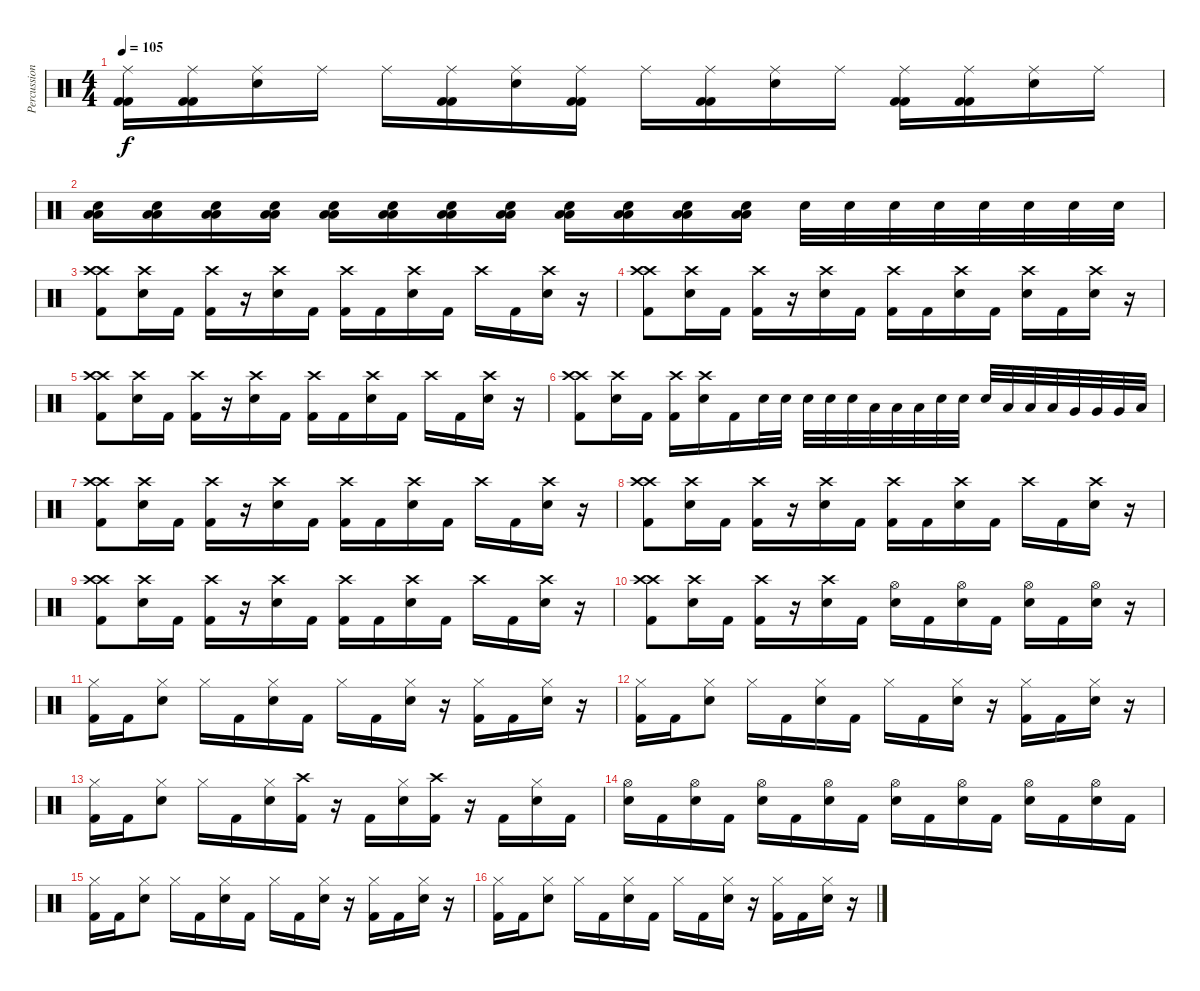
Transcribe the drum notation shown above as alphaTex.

\track ("Percussion" "Percussion") {instrument percussion}
\staff {score}
\articulation defaults
\ts (4 4)
\tempo 105
\clef neutral
\ks c
("Ride (middle)" "Kick (hit) 2" "Kick (hit) 2").16{dy f} ("Ride (middle)" "Kick (hit) 2" "Kick (hit) 2").16 ("Ride (middle)" "Snare (hit) 2").16 "Ride (middle)".16 "Ride (middle)".16 ("Ride (middle)" "Kick (hit) 2" "Kick (hit) 2").16 ("Ride (middle)" "Snare (hit) 2").16 ("Ride (middle)" "Kick (hit) 2" "Kick (hit) 2").16 "Ride (middle)".16 ("Ride (middle)" "Kick (hit) 2" "Kick (hit) 2").16 ("Ride (middle)" "Snare (hit) 2").16 "Ride (middle)".16 ("Ride (middle)" "Kick (hit) 2" "Kick (hit) 2").16 ("Ride (middle)" "Kick (hit) 2" "Kick (hit) 2").16 ("Ride (middle)" "Snare (hit) 2").16 "Ride (middle)".16 |
("Snare (hit) 2" "Low Floor Tom (hit)" "Low Floor Tom (hit)").16 ("Snare (hit) 2" "Low Floor Tom (hit)" "Low Floor Tom (hit)").16 ("Snare (hit) 2" "Low Floor Tom (hit)" "Low Floor Tom (hit)").16 ("Snare (hit) 2" "Low Floor Tom (hit)" "Low Floor Tom (hit)").16 ("Snare (hit) 2" "Low Floor Tom (hit)" "Low Floor Tom (hit)").16 ("Snare (hit) 2" "Low Floor Tom (hit)" "Low Floor Tom (hit)").16 ("Snare (hit) 2" "Low Floor Tom (hit)" "Low Floor Tom (hit)").16 ("Snare (hit) 2" "Low Floor Tom (hit)" "Low Floor Tom (hit)").16 ("Snare (hit) 2" "Low Floor Tom (hit)" "Low Floor Tom (hit)").16 ("Snare (hit) 2" "Low Floor Tom (hit)" "Low Floor Tom (hit)").16 ("Snare (hit) 2" "Low Floor Tom (hit)" "Low Floor Tom (hit)").16 ("Snare (hit) 2" "Low Floor Tom (hit)" "Low Floor Tom (hit)").16 "Snare (hit) 2".32 "Snare (hit) 2".32 "Snare (hit) 2".32 "Snare (hit) 2".32 "Snare (hit) 2".32 "Snare (hit) 2".32 "Snare (hit) 2".32 "Snare (hit) 2".32 |
("Crash high (hit)" "Crash high (hit)" "Kick (hit) 2").8 ("Crash high (hit)" "Snare (hit) 2").16 "Kick (hit) 2".16 ("Crash high (hit)" "Kick (hit) 2").16 r.16 ("Crash high (hit)" "Snare (hit) 2").16 "Kick (hit) 2".16 ("Crash high (hit)" "Kick (hit) 2").16 "Kick (hit) 2".16 ("Crash high (hit)" "Snare (hit) 2").16 "Kick (hit) 2".16 "Crash high (hit)".16 "Kick (hit) 2".16 ("Crash high (hit)" "Snare (hit) 2").16 r.16 |
("Crash high (hit)" "Crash high (hit)" "Kick (hit) 2").8 ("Crash high (hit)" "Snare (hit) 2").16 "Kick (hit) 2".16 ("Crash high (hit)" "Kick (hit) 2").16 r.16 ("Crash high (hit)" "Snare (hit) 2").16 "Kick (hit) 2".16 ("Crash high (hit)" "Kick (hit) 2").16 "Kick (hit) 2".16 ("Crash high (hit)" "Snare (hit) 2").16 "Kick (hit) 2".16 ("Crash high (hit)" "Snare (hit) 2").16 "Kick (hit) 2".16 ("Crash high (hit)" "Snare (hit) 2").16 r.16 |
("Crash high (hit)" "Crash high (hit)" "Kick (hit) 2").8 ("Crash high (hit)" "Snare (hit) 2").16 "Kick (hit) 2".16 ("Crash high (hit)" "Kick (hit) 2").16 r.16 ("Crash high (hit)" "Snare (hit) 2").16 "Kick (hit) 2".16 ("Crash high (hit)" "Kick (hit) 2").16 "Kick (hit) 2".16 ("Crash high (hit)" "Snare (hit) 2").16 "Kick (hit) 2".16 "Crash high (hit)".16 "Kick (hit) 2".16 ("Crash high (hit)" "Snare (hit) 2").16 r.16 |
("Crash high (hit)" "Crash high (hit)" "Kick (hit) 2").8 ("Crash high (hit)" "Snare (hit) 2").16 "Kick (hit) 2".16 ("Crash high (hit)" "Kick (hit) 2").16 ("Crash high (hit)" "Snare (hit) 2").16 "Kick (hit) 2".16 "Snare (hit) 2".32 "Snare (hit) 2".32 "Snare (hit) 2".32 "Snare (hit) 2".32 "Snare (hit) 2".32 "Low Tom (hit)".32 "Low Tom (hit)".32 "Low Tom (hit)".32 "Snare (hit) 2".32 "Snare (hit) 2".32 "Snare (hit) 2".32 "Low Tom (hit)".32 "Low Tom (hit)".32 "Low Tom (hit)".32 "Very Low Tom (hit)".32 "Very Low Tom (hit)".32 "Very Low Tom (hit)".32 "Low Floor Tom (hit)".32 |
("Crash high (hit)" "Crash high (hit)" "Kick (hit) 2").8 ("Crash high (hit)" "Snare (hit) 2").16 "Kick (hit) 2".16 ("Crash high (hit)" "Kick (hit) 2").16 r.16 ("Crash high (hit)" "Snare (hit) 2").16 "Kick (hit) 2".16 ("Crash high (hit)" "Kick (hit) 2").16 "Kick (hit) 2".16 ("Crash high (hit)" "Snare (hit) 2").16 "Kick (hit) 2".16 "Crash high (hit)".16 "Kick (hit) 2".16 ("Crash high (hit)" "Snare (hit) 2").16 r.16 |
("Crash high (hit)" "Crash high (hit)" "Kick (hit) 2").8 ("Crash high (hit)" "Snare (hit) 2").16 "Kick (hit) 2".16 ("Crash high (hit)" "Kick (hit) 2").16 r.16 ("Crash high (hit)" "Snare (hit) 2").16 "Kick (hit) 2".16 ("Crash high (hit)" "Kick (hit) 2").16 "Kick (hit) 2".16 ("Crash high (hit)" "Snare (hit) 2").16 "Kick (hit) 2".16 "Crash high (hit)".16 "Kick (hit) 2".16 ("Crash high (hit)" "Snare (hit) 2").16 r.16 |
("Crash high (hit)" "Crash high (hit)" "Kick (hit) 2").8 ("Crash high (hit)" "Snare (hit) 2").16 "Kick (hit) 2".16 ("Crash high (hit)" "Kick (hit) 2").16 r.16 ("Crash high (hit)" "Snare (hit) 2").16 "Kick (hit) 2".16 ("Crash high (hit)" "Kick (hit) 2").16 "Kick (hit) 2".16 ("Crash high (hit)" "Snare (hit) 2").16 "Kick (hit) 2".16 "Crash high (hit)".16 "Kick (hit) 2".16 ("Crash high (hit)" "Snare (hit) 2").16 r.16 |
("Crash high (hit)" "Crash high (hit)" "Kick (hit) 2").8 ("Crash high (hit)" "Snare (hit) 2").16 "Kick (hit) 2".16 ("Crash high (hit)" "Kick (hit) 2").16 r.16 ("Crash high (hit)" "Snare (hit) 2").16 "Kick (hit) 2".16 ("Hi-Hat (open)" "Snare (hit) 2").16 "Kick (hit) 2".16 ("Hi-Hat (open)" "Snare (hit) 2").16 "Kick (hit) 2".16 ("Hi-Hat (open)" "Snare (hit) 2").16 "Kick (hit) 2".16 ("Hi-Hat (open)" "Snare (hit) 2").16 r.16 |
("Hi-Hat (closed)" "Kick (hit) 2").16 "Kick (hit) 2".16 ("Hi-Hat (closed)" "Snare (hit) 2").8 "Hi-Hat (closed)".16 "Kick (hit) 2".16 ("Hi-Hat (closed)" "Snare (hit) 2").16 "Kick (hit) 2".16 "Hi-Hat (closed)".16 "Kick (hit) 2".16 ("Hi-Hat (closed)" "Snare (hit) 2").16 r.16 ("Hi-Hat (closed)" "Kick (hit) 2").16 "Kick (hit) 2".16 ("Hi-Hat (closed)" "Snare (hit) 2").16 r.16 |
("Hi-Hat (closed)" "Kick (hit) 2").16 "Kick (hit) 2".16 ("Hi-Hat (closed)" "Snare (hit) 2").8 "Hi-Hat (closed)".16 "Kick (hit) 2".16 ("Hi-Hat (closed)" "Snare (hit) 2").16 "Kick (hit) 2".16 "Hi-Hat (closed)".16 "Kick (hit) 2".16 ("Hi-Hat (closed)" "Snare (hit) 2").16 r.16 ("Hi-Hat (closed)" "Kick (hit) 2").16 "Kick (hit) 2".16 ("Hi-Hat (closed)" "Snare (hit) 2").16 r.16 |
("Hi-Hat (closed)" "Kick (hit) 2").16 "Kick (hit) 2".16 ("Hi-Hat (closed)" "Snare (hit) 2").8 "Hi-Hat (closed)".16 "Kick (hit) 2".16 ("Hi-Hat (closed)" "Snare (hit) 2").16 ("Crash high (hit)" "Kick (hit) 2").16 r.16 "Kick (hit) 2".16 ("Hi-Hat (closed)" "Snare (hit) 2").16 ("Crash high (hit)" "Kick (hit) 2").16 r.16 "Kick (hit) 2".16 ("Hi-Hat (closed)" "Snare (hit) 2").16 "Kick (hit) 2".16 |
("Hi-Hat (open)" "Snare (hit) 2").16 "Kick (hit) 2".16 ("Hi-Hat (open)" "Snare (hit) 2").16 "Kick (hit) 2".16 ("Hi-Hat (open)" "Snare (hit) 2").16 "Kick (hit) 2".16 ("Hi-Hat (open)" "Snare (hit) 2").16 "Kick (hit) 2".16 ("Hi-Hat (open)" "Snare (hit) 2").16 "Kick (hit) 2".16 ("Hi-Hat (open)" "Snare (hit) 2").16 "Kick (hit) 2".16 ("Hi-Hat (open)" "Snare (hit) 2").16 "Kick (hit) 2".16 ("Hi-Hat (open)" "Snare (hit) 2").16 "Kick (hit) 2".16 |
("Hi-Hat (closed)" "Kick (hit) 2").16 "Kick (hit) 2".16 ("Hi-Hat (closed)" "Snare (hit) 2").8 "Hi-Hat (closed)".16 "Kick (hit) 2".16 ("Hi-Hat (closed)" "Snare (hit) 2").16 "Kick (hit) 2".16 "Hi-Hat (closed)".16 "Kick (hit) 2".16 ("Hi-Hat (closed)" "Snare (hit) 2").16 r.16 ("Hi-Hat (closed)" "Kick (hit) 2").16 "Kick (hit) 2".16 ("Hi-Hat (closed)" "Snare (hit) 2").16 r.16 |
("Hi-Hat (closed)" "Kick (hit) 2").16 "Kick (hit) 2".16 ("Hi-Hat (closed)" "Snare (hit) 2").8 "Hi-Hat (closed)".16 "Kick (hit) 2".16 ("Hi-Hat (closed)" "Snare (hit) 2").16 "Kick (hit) 2".16 "Hi-Hat (closed)".16 "Kick (hit) 2".16 ("Hi-Hat (closed)" "Snare (hit) 2").16 r.16 ("Hi-Hat (closed)" "Kick (hit) 2").16 "Kick (hit) 2".16 ("Hi-Hat (closed)" "Snare (hit) 2").16 r.16
